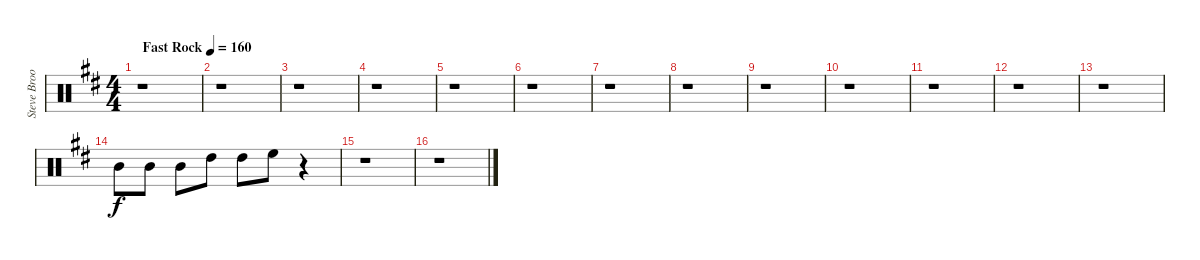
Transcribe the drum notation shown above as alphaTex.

\track ("Steve Brookins Drums" "Steve Broo") {instrument percussion}
\staff {score}
\articulation defaults
\ts (4 4)
\tempo (160 "Fast Rock")
\clef neutral
\ks d
r.1{dy f} |
r.1 |
r.1 |
r.1 |
r.1 |
r.1 |
r.1 |
r.1 |
r.1 |
r.1 |
r.1 |
r.1 |
r.1 |
"Mid Tom (hit)".8 "Mid Tom (hit)".8 "Mid Tom (hit)".8 "High Tom (hit)".8 "High Tom (hit)".8 "High Floor Tom (hit)".8 r.4 |
r.1 |
r.1
